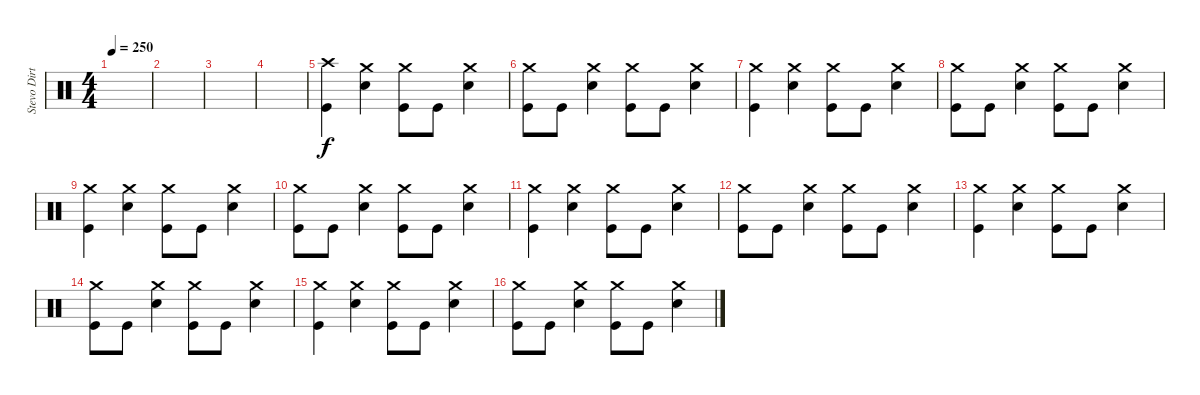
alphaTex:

\track ("Stevo Dirty Poo" "Stevo Dirt") {instrument percussion}
\staff {score}
\articulation defaults
\ts (4 4)
\tempo 250
\clef neutral
\ks c
|
|
|
|
("Crash high (hit)" "Kick (hit)").4 ("Crash medium (hit)" "Snare (hit) 2").4 ("Crash medium (hit)" "Kick (hit)").8 "Kick (hit)".8 ("Crash medium (hit)" "Snare (hit) 2").4 |
("Crash medium (hit)" "Kick (hit)").8 "Kick (hit)".8 ("Crash medium (hit)" "Snare (hit) 2").4 ("Crash medium (hit)" "Kick (hit)").8 "Kick (hit)".8 ("Crash medium (hit)" "Snare (hit) 2").4 |
("Crash medium (hit)" "Kick (hit)").4 ("Crash medium (hit)" "Snare (hit) 2").4 ("Crash medium (hit)" "Kick (hit)").8 "Kick (hit)".8 ("Crash medium (hit)" "Snare (hit) 2").4 |
("Crash medium (hit)" "Kick (hit)").8 "Kick (hit)".8 ("Crash medium (hit)" "Snare (hit) 2").4 ("Crash medium (hit)" "Kick (hit)").8 "Kick (hit)".8 ("Crash medium (hit)" "Snare (hit) 2").4 |
("Crash medium (hit)" "Kick (hit)").4 ("Crash medium (hit)" "Snare (hit) 2").4 ("Crash medium (hit)" "Kick (hit)").8 "Kick (hit)".8 ("Crash medium (hit)" "Snare (hit) 2").4 |
("Crash medium (hit)" "Kick (hit)").8 "Kick (hit)".8 ("Crash medium (hit)" "Snare (hit) 2").4 ("Crash medium (hit)" "Kick (hit)").8 "Kick (hit)".8 ("Crash medium (hit)" "Snare (hit) 2").4 |
("Crash medium (hit)" "Kick (hit)").4 ("Crash medium (hit)" "Snare (hit) 2").4 ("Crash medium (hit)" "Kick (hit)").8 "Kick (hit)".8 ("Crash medium (hit)" "Snare (hit) 2").4 |
("Crash medium (hit)" "Kick (hit)").8 "Kick (hit)".8 ("Crash medium (hit)" "Snare (hit) 2").4 ("Crash medium (hit)" "Kick (hit)").8 "Kick (hit)".8 ("Crash medium (hit)" "Snare (hit) 2").4 |
("Crash medium (hit)" "Kick (hit)").4 ("Crash medium (hit)" "Snare (hit) 2").4 ("Crash medium (hit)" "Kick (hit)").8 "Kick (hit)".8 ("Crash medium (hit)" "Snare (hit) 2").4 |
("Crash medium (hit)" "Kick (hit)").8 "Kick (hit)".8 ("Crash medium (hit)" "Snare (hit) 2").4 ("Crash medium (hit)" "Kick (hit)").8 "Kick (hit)".8 ("Crash medium (hit)" "Snare (hit) 2").4 |
("Crash medium (hit)" "Kick (hit)").4 ("Crash medium (hit)" "Snare (hit) 2").4 ("Crash medium (hit)" "Kick (hit)").8 "Kick (hit)".8 ("Crash medium (hit)" "Snare (hit) 2").4 |
("Crash medium (hit)" "Kick (hit)").8 "Kick (hit)".8 ("Crash medium (hit)" "Snare (hit) 2").4 ("Crash medium (hit)" "Kick (hit)").8 "Kick (hit)".8 ("Crash medium (hit)" "Snare (hit) 2").4
